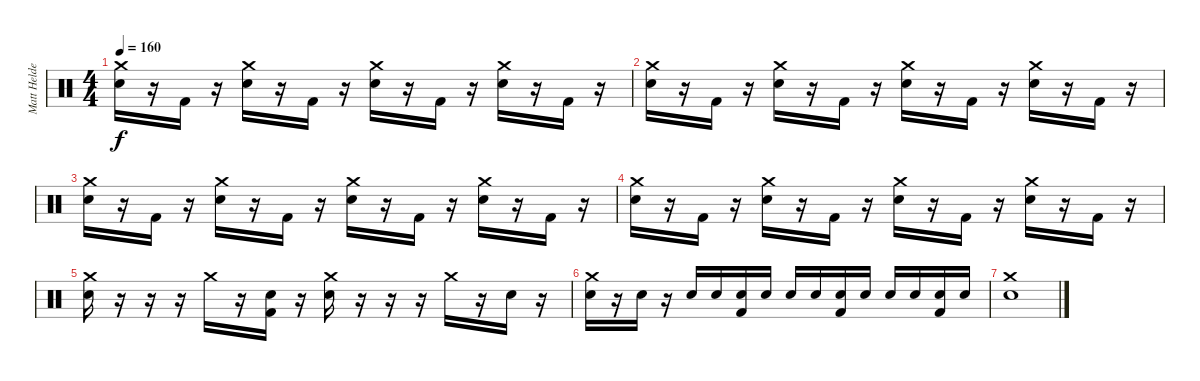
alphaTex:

\track ("Matt Helders" "Matt Helde") {instrument percussion}
\staff {score}
\articulation defaults
\ts (4 4)
\tempo 160
\clef neutral
\ks c
("Crash medium (hit)" "Snare (hit) 2").16{dy f} r.16 "Kick (hit) 2".16 r.16 ("Crash medium (hit)" "Snare (hit) 2").16 r.16 "Kick (hit) 2".16 r.16 ("Crash medium (hit)" "Snare (hit) 2").16 r.16 "Kick (hit) 2".16 r.16 ("Crash medium (hit)" "Snare (hit) 2").16 r.16 "Kick (hit) 2".16 r.16 |
("Crash medium (hit)" "Snare (hit) 2").16 r.16 "Kick (hit) 2".16 r.16 ("Crash medium (hit)" "Snare (hit) 2").16 r.16 "Kick (hit) 2".16 r.16 ("Crash medium (hit)" "Snare (hit) 2").16 r.16 "Kick (hit) 2".16 r.16 ("Crash medium (hit)" "Snare (hit) 2").16 r.16 "Kick (hit) 2".16 r.16 |
("Crash medium (hit)" "Snare (hit) 2").16 r.16 "Kick (hit) 2".16 r.16 ("Crash medium (hit)" "Snare (hit) 2").16 r.16 "Kick (hit) 2".16 r.16 ("Crash medium (hit)" "Snare (hit) 2").16 r.16 "Kick (hit) 2".16 r.16 ("Crash medium (hit)" "Snare (hit) 2").16 r.16 "Kick (hit) 2".16 r.16 |
("Crash medium (hit)" "Snare (hit) 2").16 r.16 "Kick (hit) 2".16 r.16 ("Crash medium (hit)" "Snare (hit) 2").16 r.16 "Kick (hit) 2".16 r.16 ("Crash medium (hit)" "Snare (hit) 2").16 r.16 "Kick (hit) 2".16 r.16 ("Crash medium (hit)" "Snare (hit) 2").16 r.16 "Kick (hit) 2".16 r.16 |
("Crash medium (hit)" "Snare (hit) 2").16 r.16 r.16 r.16 "Crash medium (hit)".16 r.16 ("Snare (hit) 2" "Kick (hit) 2").16 r.16 ("Crash medium (hit)" "Snare (hit) 2").16 r.16 r.16 r.16 "Crash medium (hit)".16 r.16 "Snare (hit) 2".16 r.16 |
("Crash medium (hit)" "Snare (hit) 2").16 r.16 "Snare (hit) 2".16 r.16 "Snare (hit) 2".16 "Snare (hit) 2".16 ("Snare (hit) 2" "Kick (hit) 2").16 "Snare (hit) 2".16 "Snare (hit) 2".16 "Snare (hit) 2".16 ("Snare (hit) 2" "Kick (hit) 2").16 "Snare (hit) 2".16 "Snare (hit) 2".16 "Snare (hit) 2".16 ("Snare (hit) 2" "Kick (hit) 2").16 "Snare (hit) 2".16 |
("Crash medium (hit)" "Snare (hit) 2").1
